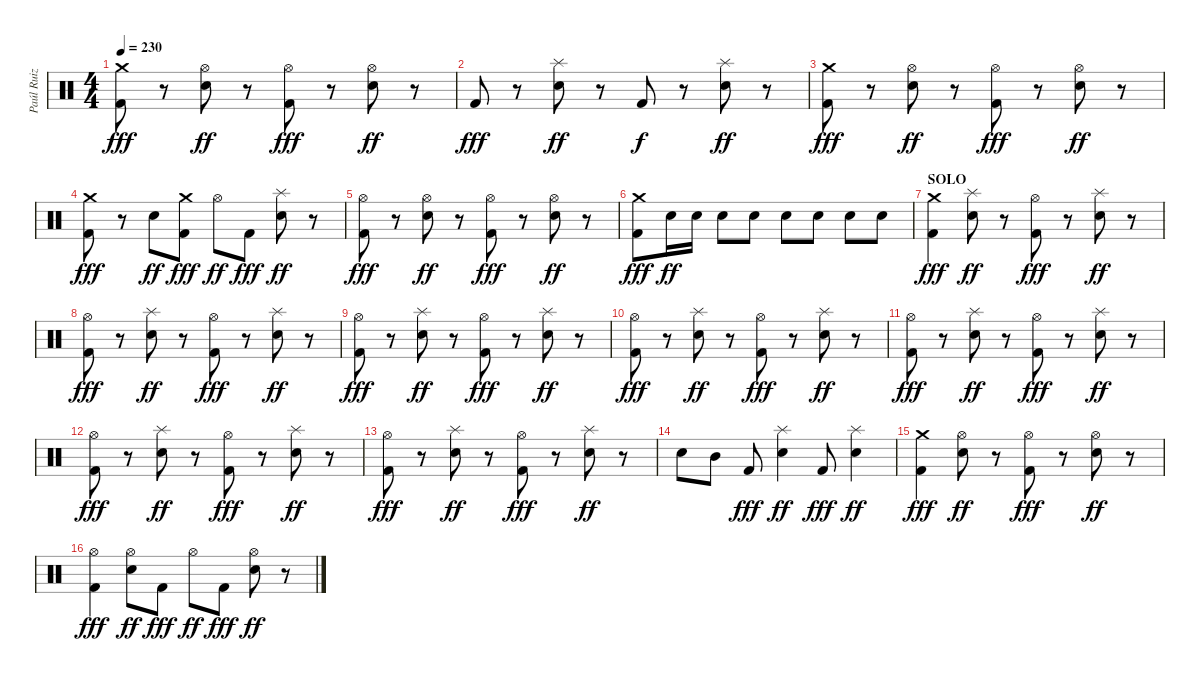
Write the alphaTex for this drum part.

\track ("Paúl Ruiz" "Paúl Ruiz") {instrument percussion}
\staff {score}
\articulation defaults
\ts (4 4)
\tempo 230
\clef neutral
\ks c
("Crash medium (hit)" "Kick (hit) 2").8{dy fff} r.8 ("Hi-Hat (open)" "Snare (hit) 2").8{dy ff} r.8 ("Hi-Hat (open)" "Kick (hit) 2").8{dy fff} r.8 ("Hi-Hat (open)" "Snare (hit) 2").8{dy ff} r.8 |
"Kick (hit) 2".8{dy fff} r.8 ("Splash (hit)" "Snare (hit) 2").8{dy ff} r.8 "Kick (hit) 2".8{dy f} r.8 ("Splash (hit)" "Snare (hit) 2").8{dy ff} r.8 |
("Crash medium (hit)" "Kick (hit) 2").8{dy fff} r.8 ("Hi-Hat (open)" "Snare (hit) 2").8{dy ff} r.8 ("Hi-Hat (open)" "Kick (hit) 2").8{dy fff} r.8 ("Hi-Hat (open)" "Snare (hit) 2").8{dy ff} r.8 |
("Crash medium (hit)" "Kick (hit) 2").8{dy fff} r.8 "Snare (hit) 2".8{dy ff} ("Crash medium (hit)" "Kick (hit) 2").8{dy fff} "Hi-Hat (open)".8{dy ff} "Kick (hit) 2".8{dy fff} ("Splash (hit)" "Snare (hit) 2").8{dy ff} r.8 |
("Hi-Hat (open)" "Kick (hit) 2").8{dy fff} r.8 ("Hi-Hat (open)" "Snare (hit) 2").8{dy ff} r.8 ("Hi-Hat (open)" "Kick (hit) 2").8{dy fff} r.8 ("Hi-Hat (open)" "Snare (hit) 2").8{dy ff} r.8 |
("Crash medium (hit)" "Kick (hit) 2").8{dy fff} "Snare (hit) 2".16{dy ff} "Snare (hit) 2".16 "Snare (hit) 2".8 "Snare (hit) 2".8 "Snare (hit) 2".8 "Snare (hit) 2".8 "Snare (hit) 2".8 "Snare (hit) 2".8 |
\section ("" "SOLO")
("Crash medium (hit)" "Kick (hit) 2").4{dy fff} ("Splash (hit)" "Snare (hit) 2").8{dy ff} r.8 ("Hi-Hat (open)" "Kick (hit) 2").8{dy fff} r.8 ("Splash (hit)" "Snare (hit) 2").8{dy ff} r.8 |
("Hi-Hat (open)" "Kick (hit) 2").8{dy fff} r.8 ("Splash (hit)" "Snare (hit) 2").8{dy ff} r.8 ("Hi-Hat (open)" "Kick (hit) 2").8{dy fff} r.8 ("Splash (hit)" "Snare (hit) 2").8{dy ff} r.8 |
("Hi-Hat (open)" "Kick (hit) 2").8{dy fff} r.8 ("Splash (hit)" "Snare (hit) 2").8{dy ff} r.8 ("Hi-Hat (open)" "Kick (hit) 2").8{dy fff} r.8 ("Splash (hit)" "Snare (hit) 2").8{dy ff} r.8 |
("Hi-Hat (open)" "Kick (hit) 2").8{dy fff} r.8 ("Splash (hit)" "Snare (hit) 2").8{dy ff} r.8 ("Hi-Hat (open)" "Kick (hit) 2").8{dy fff} r.8 ("Splash (hit)" "Snare (hit) 2").8{dy ff} r.8 |
("Hi-Hat (open)" "Kick (hit) 2").8{dy fff} r.8 ("Splash (hit)" "Snare (hit) 2").8{dy ff} r.8 ("Hi-Hat (open)" "Kick (hit) 2").8{dy fff} r.8 ("Splash (hit)" "Snare (hit) 2").8{dy ff} r.8 |
("Hi-Hat (open)" "Kick (hit) 2").8{dy fff} r.8 ("Splash (hit)" "Snare (hit) 2").8{dy ff} r.8 ("Hi-Hat (open)" "Kick (hit) 2").8{dy fff} r.8 ("Splash (hit)" "Snare (hit) 2").8{dy ff} r.8 |
("Hi-Hat (open)" "Kick (hit) 2").8{dy fff} r.8 ("Splash (hit)" "Snare (hit) 2").8{dy ff} r.8 ("Hi-Hat (open)" "Kick (hit) 2").8{dy fff} r.8 ("Splash (hit)" "Snare (hit) 2").8{dy ff} r.8 |
"Snare (hit) 2".8 "Mid Tom (hit)".8 "Kick (hit) 2".8{dy fff} ("Splash (hit)" "Snare (hit) 2").4{dy ff} "Kick (hit) 2".8{dy fff} ("Splash (hit)" "Snare (hit) 2").4{dy ff} |
("Crash medium (hit)" "Kick (hit) 2").4{dy fff} ("Hi-Hat (open)" "Snare (hit) 2").8{dy ff} r.8 ("Hi-Hat (open)" "Kick (hit) 2").8{dy fff} r.8 ("Hi-Hat (open)" "Snare (hit) 2").8{dy ff} r.8 |
("Hi-Hat (open)" "Kick (hit) 2").4{dy fff} ("Hi-Hat (open)" "Snare (hit) 2").8{dy ff} "Kick (hit) 2".8{dy fff} "Hi-Hat (open)".8{dy ff} "Kick (hit) 2".8{dy fff} ("Hi-Hat (open)" "Snare (hit) 2").8{dy ff} r.8
